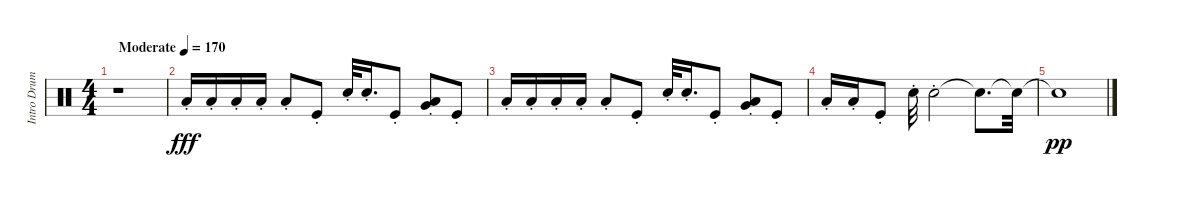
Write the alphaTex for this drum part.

\track ("Intro Drums" "Intro Drum") {instrument percussion}
\staff {score}
\articulation defaults
\ts (4 4)
\tempo (170 "Moderate")
\clef neutral
\ks c
r.1{dy fff} |
"Low Floor Tom (hit)"{st}.16{volume 1} "Low Floor Tom (hit)"{st}.16 "Low Floor Tom (hit)"{st}.16 "Low Floor Tom (hit)"{st}.16 "Low Floor Tom (hit)"{st}.8 "Kick (hit)"{st}.8 "Electric Snare (hit)"{st}.32 "Electric Snare (hit)"{st}.16{d} "Kick (hit)"{st}.8 ("Low Floor Tom (hit)"{st} "Very Low Tom (hit)"{st}).8 "Kick (hit)"{st}.8 |
"Low Floor Tom (hit)"{st}.16 "Low Floor Tom (hit)"{st}.16 "Low Floor Tom (hit)"{st}.16 "Low Floor Tom (hit)"{st}.16 "Low Floor Tom (hit)"{st}.8 "Kick (hit)"{st}.8 "Electric Snare (hit)"{st}.32 "Electric Snare (hit)"{st}.16{d} "Kick (hit)"{st}.8 ("Low Floor Tom (hit)"{st} "Very Low Tom (hit)"{st}).8 "Kick (hit)"{st}.8 |
"Low Floor Tom (hit)"{st}.16 "Low Floor Tom (hit)"{st}.16 "Kick (hit)"{st}.8 "Electric Snare (hit)"{st}.32 "Electric Snare (hit)"{st}.2 "Snare (hit)"{t}.8{d} "Snare (hit)"{t}.32 |
"Snare (hit)"{t}.1{dy pp}
